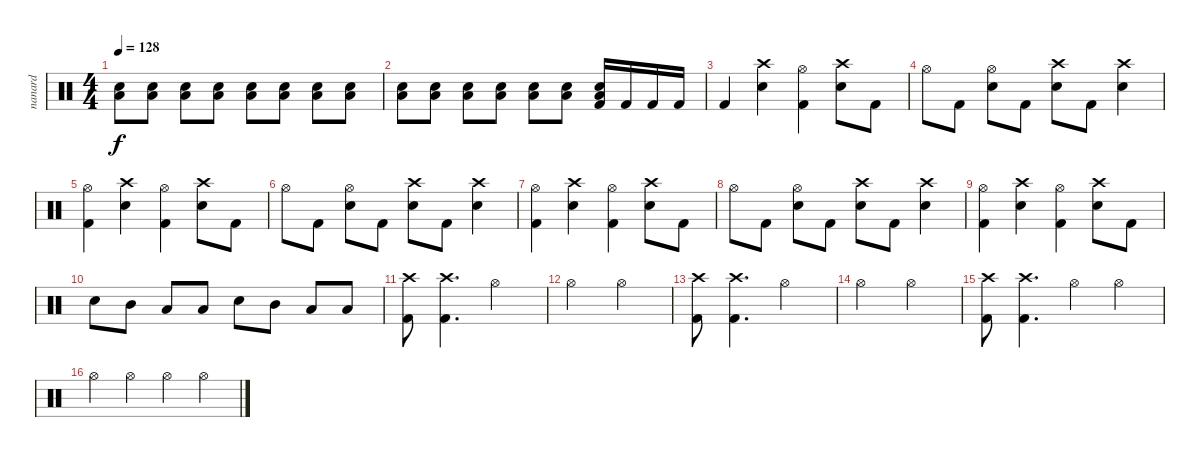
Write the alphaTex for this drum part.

\track ("nanard" "nanard") {instrument percussion}
\staff {score}
\articulation defaults
\ts (4 4)
\tempo 128
\clef neutral
\ks c
("Electric Snare (hit)" "Low Floor Tom (hit)").8{dy f} ("Electric Snare (hit)" "Low Floor Tom (hit)").8 ("Electric Snare (hit)" "Low Floor Tom (hit)").8 ("Electric Snare (hit)" "Low Floor Tom (hit)").8 ("Electric Snare (hit)" "Low Floor Tom (hit)").8 ("Electric Snare (hit)" "Low Floor Tom (hit)").8 ("Electric Snare (hit)" "Low Floor Tom (hit)").8 ("Electric Snare (hit)" "Low Floor Tom (hit)").8 |
("Electric Snare (hit)" "Low Floor Tom (hit)").8 ("Electric Snare (hit)" "Low Floor Tom (hit)").8 ("Electric Snare (hit)" "Low Floor Tom (hit)").8 ("Electric Snare (hit)" "Low Floor Tom (hit)").8 ("Electric Snare (hit)" "Low Floor Tom (hit)").8 ("Electric Snare (hit)" "Low Floor Tom (hit)").8 ("Electric Snare (hit)" "Low Floor Tom (hit)" "Kick (hit) 2").16 "Kick (hit) 2".16 "Kick (hit) 2".16 "Kick (hit) 2".16 |
"Kick (hit) 2".4 ("Crash high (hit)" "Electric Snare (hit)").4 ("Hi-Hat (open)" "Kick (hit) 2").4 ("Crash high (hit)" "Electric Snare (hit)").8 "Kick (hit) 2".8 |
"Hi-Hat (open)".8 "Kick (hit) 2".8 ("Hi-Hat (open)" "Electric Snare (hit)").8 "Kick (hit) 2".8 ("Crash high (hit)" "Electric Snare (hit)").8 "Kick (hit) 2".8 ("Crash high (hit)" "Electric Snare (hit)").4 |
("Hi-Hat (open)" "Kick (hit) 2").4 ("Crash high (hit)" "Electric Snare (hit)").4 ("Hi-Hat (open)" "Kick (hit) 2").4 ("Crash high (hit)" "Electric Snare (hit)").8 "Kick (hit) 2".8 |
"Hi-Hat (open)".8 "Kick (hit) 2".8 ("Hi-Hat (open)" "Electric Snare (hit)").8 "Kick (hit) 2".8 ("Crash high (hit)" "Electric Snare (hit)").8 "Kick (hit) 2".8 ("Crash high (hit)" "Electric Snare (hit)").4 |
("Hi-Hat (open)" "Kick (hit) 2").4 ("Crash high (hit)" "Electric Snare (hit)").4 ("Hi-Hat (open)" "Kick (hit) 2").4 ("Crash high (hit)" "Electric Snare (hit)").8 "Kick (hit) 2".8 |
"Hi-Hat (open)".8 "Kick (hit) 2".8 ("Hi-Hat (open)" "Electric Snare (hit)").8 "Kick (hit) 2".8 ("Crash high (hit)" "Electric Snare (hit)").8 "Kick (hit) 2".8 ("Crash high (hit)" "Electric Snare (hit)").4 |
("Hi-Hat (open)" "Kick (hit) 2").4 ("Crash high (hit)" "Electric Snare (hit)").4 ("Hi-Hat (open)" "Kick (hit) 2").4 ("Crash high (hit)" "Electric Snare (hit)").8 "Kick (hit) 2".8 |
"Electric Snare (hit)".8 "Mid Tom (hit)".8 "Low Tom (hit)".8 "Low Floor Tom (hit)".8 "Electric Snare (hit)".8 "Mid Tom (hit)".8 "Low Tom (hit)".8 "Low Floor Tom (hit)".8 |
("Crash high (hit)" "Kick (hit) 2").8 ("Crash high (hit)" "Kick (hit) 2").4{d} "Hi-Hat (open)".2 |
"Hi-Hat (open)".2 "Hi-Hat (open)".2 |
("Crash high (hit)" "Kick (hit) 2").8 ("Crash high (hit)" "Kick (hit) 2").4{d} "Hi-Hat (open)".2 |
"Hi-Hat (open)".2 "Hi-Hat (open)".2 |
("Crash high (hit)" "Kick (hit) 2").8 ("Crash high (hit)" "Kick (hit) 2").4{d} "Hi-Hat (open)".4 "Hi-Hat (open)".4 |
"Hi-Hat (open)".4 "Hi-Hat (open)".4 "Hi-Hat (open)".4 "Hi-Hat (open)".4
